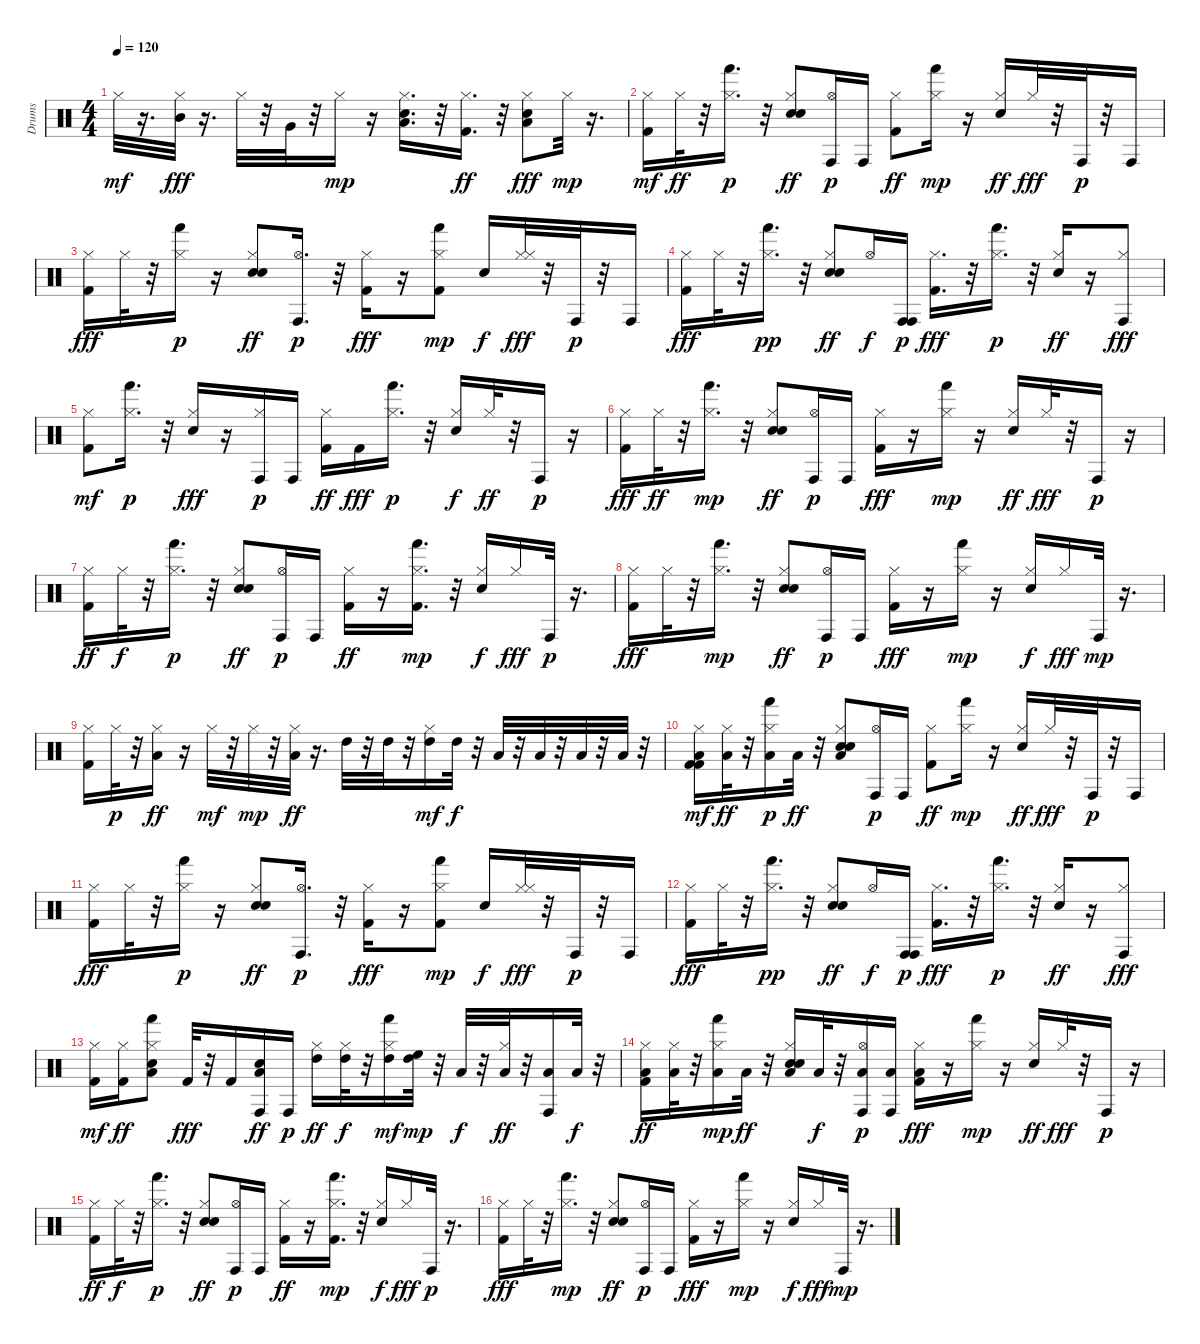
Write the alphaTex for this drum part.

\track ("Drums" "Drums") {instrument percussion}
\staff {score}
\articulation defaults
\ts (4 4)
\tempo 120
\clef neutral
\ks c "Hi-Hat (closed)".32{dy mf}
r.16{d} ("Hi-Hat (closed)" "Mid Tom (hit)").32{dy fff} r.16{d} "Hi-Hat (closed)".32 r.32 "Very Low Tom (hit)".32 r.32 "Hi-Hat (closed)".16{dy mp} r.16 ("Low Floor Tom (hit)" "Hi-Hat (closed)" "Electric Snare (hit)").16{d} r.32 ("Hi-Hat (closed)" "Kick (hit) 2").16{d dy ff} r.32 ("Low Floor Tom (hit)" "Hi-Hat (closed)" "Electric Snare (hit)").8{dy fff} "Hi-Hat (closed)".32{dy mp} r.16{d} |
("Kick (hit) 2" "Hi-Hat (closed)").16{dy mf} "Hi-Hat (closed)".32{dy ff} r.32 ("Hi-Hat (closed)" "Hand (hit)").16{d dy p} r.32 ("Hi-Hat (closed)" "Hand Clap (hit)" "Electric Snare (hit)").8{dy ff} ("Hi-Hat (open)" "Conga high (hit)").16{dy p} "Conga high (hit)".16 ("Kick (hit) 2" "Hi-Hat (closed)").8{dy ff} ("Hi-Hat (closed)" "Hand (hit)").16{dy mp} r.16 ("Hi-Hat (closed)" "Electric Snare (hit)").16{dy ff} "Hi-Hat (closed)".32{dy fff} r.32 "Conga high (hit)".32{dy p} r.32 "Conga high (hit)".16 |
("Kick (hit) 2" "Hi-Hat (closed)").16{dy fff} "Hi-Hat (closed)".32 r.32 ("Hi-Hat (closed)" "Hand (hit)").16{dy p} r.16 ("Hi-Hat (closed)" "Electric Snare (hit)" "Hand Clap (hit)").8{dy ff} ("Hi-Hat (open)" "Conga high (hit)").16{d dy p} r.32 ("Kick (hit) 2" "Hi-Hat (closed)").16{dy fff} r.16 ("Kick (hit) 2" "Hi-Hat (closed)" "Hand (hit)").8{dy mp} "Electric Snare (hit)".16{dy f} ("Hi-Hat (closed)" "Hi-Hat (closed)").32{dy fff} r.32 "Conga high (hit)".32{dy p} r.32 "Conga high (hit)".16 |
("Kick (hit) 2" "Hi-Hat (closed)").16{dy fff} "Hi-Hat (closed)".32 r.32 ("Hi-Hat (closed)" "Hand (hit)").16{d dy pp} r.32 ("Hi-Hat (closed)" "Electric Snare (hit)" "Hand Clap (hit)").8{dy ff} "Hi-Hat (open)".16{dy f} ("Conga high (hit)" "Conga high (hit)").16{dy p} ("Kick (hit) 2" "Hi-Hat (closed)").16{d dy fff} r.32 ("Hi-Hat (closed)" "Hand (hit)").16{d dy p} r.32 ("Hi-Hat (closed)" "Electric Snare (hit)").16{dy ff} r.16 ("Conga high (hit)" "Hi-Hat (closed)").8{dy fff} |
("Kick (hit) 2" "Hi-Hat (closed)").8{dy mf} ("Hi-Hat (closed)" "Hand (hit)").16{d dy p} r.32 ("Hi-Hat (closed)" "Electric Snare (hit)").16{dy fff} r.16 ("Hi-Hat (closed)" "Conga high (hit)").16{dy p} "Conga high (hit)".16 ("Kick (hit) 2" "Hi-Hat (closed)").16{dy ff} "Kick (hit) 2".16{dy fff} ("Hi-Hat (closed)" "Hand (hit)").16{d dy p} r.32 ("Hi-Hat (closed)" "Electric Snare (hit)").16{dy f} "Hi-Hat (closed)".32{dy ff} r.32 "Conga high (hit)".16{dy p} r.16 |
("Kick (hit) 2" "Hi-Hat (closed)").16{dy fff} "Hi-Hat (closed)".32{dy ff} r.32 ("Hi-Hat (closed)" "Hand (hit)").16{d dy mp} r.32 ("Hi-Hat (closed)" "Electric Snare (hit)" "Hand Clap (hit)").8{dy ff} ("Hi-Hat (open)" "Conga high (hit)").16{dy p} "Conga high (hit)".16 ("Kick (hit) 2" "Hi-Hat (closed)").16{dy fff} r.16 ("Hi-Hat (closed)" "Hand (hit)").16{dy mp} r.16 ("Hi-Hat (closed)" "Electric Snare (hit)").16{dy ff} "Hi-Hat (closed)".32{dy fff} r.32 "Conga high (hit)".16{dy p} r.16 |
("Kick (hit) 2" "Hi-Hat (closed)").16{dy ff} "Hi-Hat (closed)".32{dy f} r.32 ("Hi-Hat (closed)" "Hand (hit)").16{d dy p} r.32 ("Hi-Hat (closed)" "Hand Clap (hit)" "Electric Snare (hit)").8{dy ff} ("Hi-Hat (open)" "Conga high (hit)").16{dy p} "Conga high (hit)".16 ("Kick (hit) 2" "Hi-Hat (closed)").16{dy ff} r.16 ("Kick (hit) 2" "Hi-Hat (closed)" "Hand (hit)").16{d dy mp} r.32 ("Hi-Hat (closed)" "Electric Snare (hit)").16{dy f} "Hi-Hat (closed)".16{dy fff} "Conga high (hit)".32{dy p} r.16{d} |
("Kick (hit) 2" "Hi-Hat (closed)").16{dy fff} "Hi-Hat (closed)".32 r.32 ("Hi-Hat (closed)" "Hand (hit)").16{d dy mp} r.32 ("Hi-Hat (closed)" "Electric Snare (hit)" "Hand Clap (hit)").8{dy ff} ("Hi-Hat (open)" "Conga high (hit)").16{dy p} "Conga high (hit)".16 ("Kick (hit) 2" "Hi-Hat (closed)").16{dy fff} r.16 ("Hi-Hat (closed)" "Hand (hit)").16{dy mp} r.16 ("Hi-Hat (closed)" "Electric Snare (hit)").16{dy f} "Hi-Hat (closed)".16{dy fff} "Conga high (hit)".32{dy mp} r.16{d} |
("Kick (hit) 2" "Hi-Hat (closed)").16 "Hi-Hat (closed)".32{dy p} r.32 ("Hi-Hat (closed)" "Low Floor Tom (hit)").16{dy ff} r.16 "Hi-Hat (closed)".32{dy mf} r.32 "Hi-Hat (closed)".32{dy mp} r.32 ("Hi-Hat (closed)" "Low Floor Tom (hit)").32{dy ff} r.16{d} "High Tom (hit)".32 r.32 "High Tom (hit)".32 r.32 ("Hi-Hat (closed)" "High Tom (hit)").16{dy mf} "High Tom (hit)".32{dy f} r.32 "Low Tom (hit)".32 r.32 "Low Tom (hit)".32 r.32 "Low Tom (hit)".32 r.32 "Low Tom (hit)".32 r.32 |
("Kick (hit) 2" "Low Floor Tom (hit)" "Kick (hit) 2" "Hi-Hat (closed)").16{dy mf} ("Low Floor Tom (hit)" "Hi-Hat (closed)").32{dy ff} r.32 ("Low Floor Tom (hit)" "Hi-Hat (closed)" "Hand (hit)").16{dy p} "Low Floor Tom (hit)".32{dy ff} r.32 ("Low Floor Tom (hit)" "Hi-Hat (closed)" "Hand Clap (hit)" "Electric Snare (hit)").8 ("Hi-Hat (open)" "Conga high (hit)").16{dy p} "Conga high (hit)".16 ("Kick (hit) 2" "Hi-Hat (closed)").8{dy ff} ("Hi-Hat (closed)" "Hand (hit)").16{dy mp} r.16 ("Hi-Hat (closed)" "Electric Snare (hit)").16{dy ff} "Hi-Hat (closed)".32{dy fff} r.32 "Conga high (hit)".32{dy p} r.32 "Conga high (hit)".16 |
("Kick (hit) 2" "Hi-Hat (closed)").16{dy fff} "Hi-Hat (closed)".32 r.32 ("Hi-Hat (closed)" "Hand (hit)").16{dy p} r.16 ("Hi-Hat (closed)" "Electric Snare (hit)" "Hand Clap (hit)").8{dy ff} ("Hi-Hat (open)" "Conga high (hit)").16{d dy p} r.32 ("Kick (hit) 2" "Hi-Hat (closed)").16{dy fff} r.16 ("Kick (hit) 2" "Hi-Hat (closed)" "Hand (hit)").8{dy mp} "Electric Snare (hit)".16{dy f} ("Hi-Hat (closed)" "Hi-Hat (closed)").32{dy fff} r.32 "Conga high (hit)".32{dy p} r.32 "Conga high (hit)".16 |
("Kick (hit) 2" "Hi-Hat (closed)").16{dy fff} "Hi-Hat (closed)".32 r.32 ("Hi-Hat (closed)" "Hand (hit)").16{d dy pp} r.32 ("Hi-Hat (closed)" "Electric Snare (hit)" "Hand Clap (hit)").8{dy ff} "Hi-Hat (open)".16{dy f} ("Conga high (hit)" "Conga high (hit)").16{dy p} ("Kick (hit) 2" "Hi-Hat (closed)").16{d dy fff} r.32 ("Hi-Hat (closed)" "Hand (hit)").16{d dy p} r.32 ("Hi-Hat (closed)" "Electric Snare (hit)").16{dy ff} r.16 ("Conga high (hit)" "Hi-Hat (closed)").8{dy fff} |
("Kick (hit) 2" "Hi-Hat (closed)").16{dy mf} ("Kick (hit) 2" "Hi-Hat (closed)").16{dy ff} ("Hand (hit)" "Hi-Hat (closed)" "Electric Snare (hit)" "Low Floor Tom (hit)").8 "Kick (hit) 2".32{dy fff} r.32 "Kick (hit) 2".16 ("Conga high (hit)" "Electric Snare (hit)" "Low Floor Tom (hit)").16{dy ff} "Conga high (hit)".16{dy p} ("Hi-Hat (closed)" "High Tom (hit)").16{dy ff} ("Hi-Hat (closed)" "High Tom (hit)").32{dy f} r.32 ("Hi-Hat (closed)" "Hand (hit)" "High Tom (hit)").16{dy mf} ("High Tom (hit)" "High Floor Tom (hit)").32{dy mp} r.32 "Low Tom (hit)".32{dy f} r.32 ("Hi-Hat (closed)" "Low Tom (hit)").32{dy ff} r.32 ("Conga high (hit)" "Low Tom (hit)").16 "Low Tom (hit)".32{dy f} r.32 |
("Kick (hit) 2" "Hi-Hat (closed)" "Low Floor Tom (hit)").16{dy ff} ("Hi-Hat (closed)" "Low Floor Tom (hit)").32 r.32 ("Hi-Hat (closed)" "Hand (hit)" "Low Floor Tom (hit)").16{dy mp} "Low Floor Tom (hit)".32{dy ff} r.32 ("Hi-Hat (closed)" "Electric Snare (hit)" "Hand Clap (hit)" "Low Floor Tom (hit)").16 "Low Floor Tom (hit)".32{dy f} r.32 ("Hi-Hat (open)" "Conga high (hit)" "Low Floor Tom (hit)").16{dy p} ("Conga high (hit)" "Low Floor Tom (hit)").16 ("Low Floor Tom (hit)" "Kick (hit) 2" "Hi-Hat (closed)").16{dy fff} r.16 ("Hi-Hat (closed)" "Hand (hit)").16{dy mp} r.16 ("Hi-Hat (closed)" "Electric Snare (hit)").16{dy ff} "Hi-Hat (closed)".32{dy fff} r.32 "Conga high (hit)".16{dy p} r.16 |
("Kick (hit) 2" "Hi-Hat (closed)").16{dy ff} "Hi-Hat (closed)".32{dy f} r.32 ("Hi-Hat (closed)" "Hand (hit)").16{d dy p} r.32 ("Hi-Hat (closed)" "Hand Clap (hit)" "Electric Snare (hit)").8{dy ff} ("Hi-Hat (open)" "Conga high (hit)").16{dy p} "Conga high (hit)".16 ("Kick (hit) 2" "Hi-Hat (closed)").16{dy ff} r.16 ("Kick (hit) 2" "Hi-Hat (closed)" "Hand (hit)").16{d dy mp} r.32 ("Hi-Hat (closed)" "Electric Snare (hit)").16{dy f} "Hi-Hat (closed)".16{dy fff} "Conga high (hit)".32{dy p} r.16{d} |
("Kick (hit) 2" "Hi-Hat (closed)").16{dy fff} "Hi-Hat (closed)".32 r.32 ("Hi-Hat (closed)" "Hand (hit)").16{d dy mp} r.32 ("Hi-Hat (closed)" "Electric Snare (hit)" "Hand Clap (hit)").8{dy ff} ("Hi-Hat (open)" "Conga high (hit)").16{dy p} "Conga high (hit)".16 ("Kick (hit) 2" "Hi-Hat (closed)").16{dy fff} r.16 ("Hi-Hat (closed)" "Hand (hit)").16{dy mp} r.16 ("Hi-Hat (closed)" "Electric Snare (hit)").16{dy f} "Hi-Hat (closed)".16{dy fff} "Conga high (hit)".32{dy mp} r.16{d}
